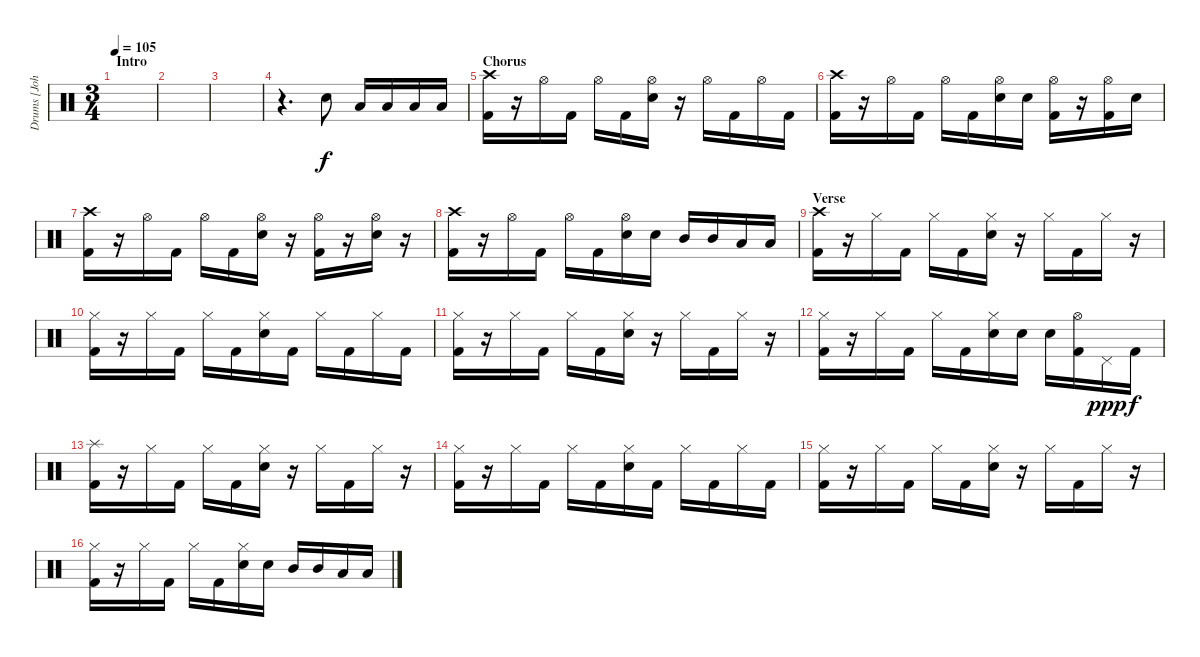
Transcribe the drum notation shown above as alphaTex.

\track ("Drums [John Otto]" "Drums [Joh") {instrument percussion}
\staff {score}
\articulation defaults
\ts (3 4)
\section ("" "Intro")
\tempo 105
\clef neutral
\ks c
|
|
|
r.4{d} "Electric Snare (hit)".8 "Low Tom (hit)".16 "Low Tom (hit)".16 "Low Tom (hit)".16 "Low Tom (hit)".16 |
\section ("" "Chorus")
("Crash high (hit)" "Kick (hit) 2").16 r.16 "Hi-Hat (open)".16 "Kick (hit) 2".16 "Hi-Hat (open)".16 "Kick (hit) 2".16 ("Hi-Hat (open)" "Electric Snare (hit)").16 r.16 "Hi-Hat (open)".16 "Kick (hit) 2".16 "Hi-Hat (open)".16 "Kick (hit) 2".16 |
("Crash high (hit)" "Kick (hit) 2").16 r.16 "Hi-Hat (open)".16 "Kick (hit) 2".16 "Hi-Hat (open)".16 "Kick (hit) 2".16 ("Hi-Hat (open)" "Electric Snare (hit)").16 "Electric Snare (hit)".16 ("Hi-Hat (open)" "Kick (hit) 2").16 r.16 ("Hi-Hat (open)" "Kick (hit) 2").16 "Electric Snare (hit)".16 |
("Crash high (hit)" "Kick (hit) 2").16 r.16 "Hi-Hat (open)".16 "Kick (hit) 2".16 "Hi-Hat (open)".16 "Kick (hit) 2".16 ("Hi-Hat (open)" "Electric Snare (hit)").16 r.16 ("Hi-Hat (open)" "Kick (hit) 2").16 r.16 ("Hi-Hat (open)" "Electric Snare (hit)").16 r.16 |
("Crash high (hit)" "Kick (hit) 2").16 r.16 "Hi-Hat (open)".16 "Kick (hit) 2".16 "Hi-Hat (open)".16 "Kick (hit) 2".16 ("Hi-Hat (open)" "Electric Snare (hit)").16 "Electric Snare (hit)".16 "Mid Tom (hit)".16 "Mid Tom (hit)".16 "Low Tom (hit)".16 "Low Tom (hit)".16 |
\section ("" "Verse")
("Crash high (hit)" "Kick (hit) 2").16 r.16 "Hi-Hat (closed)".16 "Kick (hit) 2".16 "Hi-Hat (closed)".16 "Kick (hit) 2".16 ("Hi-Hat (closed)" "Electric Snare (hit)").16 r.16 "Hi-Hat (closed)".16 "Kick (hit) 2".16 "Hi-Hat (closed)".16 r.16 |
("Hi-Hat (closed)" "Kick (hit) 2").16 r.16 "Hi-Hat (closed)".16 "Kick (hit) 2".16 "Hi-Hat (closed)".16 "Kick (hit) 2".16 ("Hi-Hat (closed)" "Electric Snare (hit)").16 "Kick (hit) 2".16 "Hi-Hat (closed)".16 "Kick (hit) 2".16 "Hi-Hat (closed)".16 "Kick (hit) 2".16 |
("Hi-Hat (closed)" "Kick (hit) 2").16 r.16 "Hi-Hat (closed)".16 "Kick (hit) 2".16 "Hi-Hat (closed)".16 "Kick (hit) 2".16 ("Hi-Hat (closed)" "Electric Snare (hit)").16 r.16 "Hi-Hat (closed)".16 "Kick (hit) 2".16 "Hi-Hat (closed)".16 r.16 |
("Hi-Hat (closed)" "Kick (hit) 2").16 r.16 "Hi-Hat (closed)".16 "Kick (hit) 2".16 "Hi-Hat (closed)".16 "Kick (hit) 2".16 ("Hi-Hat (closed)" "Electric Snare (hit)").16 "Electric Snare (hit)".16 "Electric Snare (hit)".16 ("Hi-Hat (open)" "Kick (hit) 2").16 "Pedal Hi-Hat (hit)".16{dy ppp} "Kick (hit) 2".16{dy f} |
("Splash (hit)" "Kick (hit) 2").16 r.16 "Hi-Hat (closed)".16 "Kick (hit) 2".16 "Hi-Hat (closed)".16 "Kick (hit) 2".16 ("Hi-Hat (closed)" "Electric Snare (hit)").16 r.16 "Hi-Hat (closed)".16 "Kick (hit) 2".16 "Hi-Hat (closed)".16 r.16 |
("Hi-Hat (closed)" "Kick (hit) 2").16 r.16 "Hi-Hat (closed)".16 "Kick (hit) 2".16 "Hi-Hat (closed)".16 "Kick (hit) 2".16 ("Hi-Hat (closed)" "Electric Snare (hit)").16 "Kick (hit) 2".16 "Hi-Hat (closed)".16 "Kick (hit) 2".16 "Hi-Hat (closed)".16 "Kick (hit) 2".16 |
("Hi-Hat (closed)" "Kick (hit) 2").16 r.16 "Hi-Hat (closed)".16 "Kick (hit) 2".16 "Hi-Hat (closed)".16 "Kick (hit) 2".16 ("Hi-Hat (closed)" "Electric Snare (hit)").16 r.16 "Hi-Hat (closed)".16 "Kick (hit) 2".16 "Hi-Hat (closed)".16 r.16 |
("Hi-Hat (closed)" "Kick (hit) 2").16 r.16 "Hi-Hat (closed)".16 "Kick (hit) 2".16 "Hi-Hat (closed)".16 "Kick (hit) 2".16 ("Hi-Hat (closed)" "Electric Snare (hit)").16 "Electric Snare (hit)".16 "Mid Tom (hit)".16 "Mid Tom (hit)".16 "Low Tom (hit)".16 "Low Tom (hit)".16
